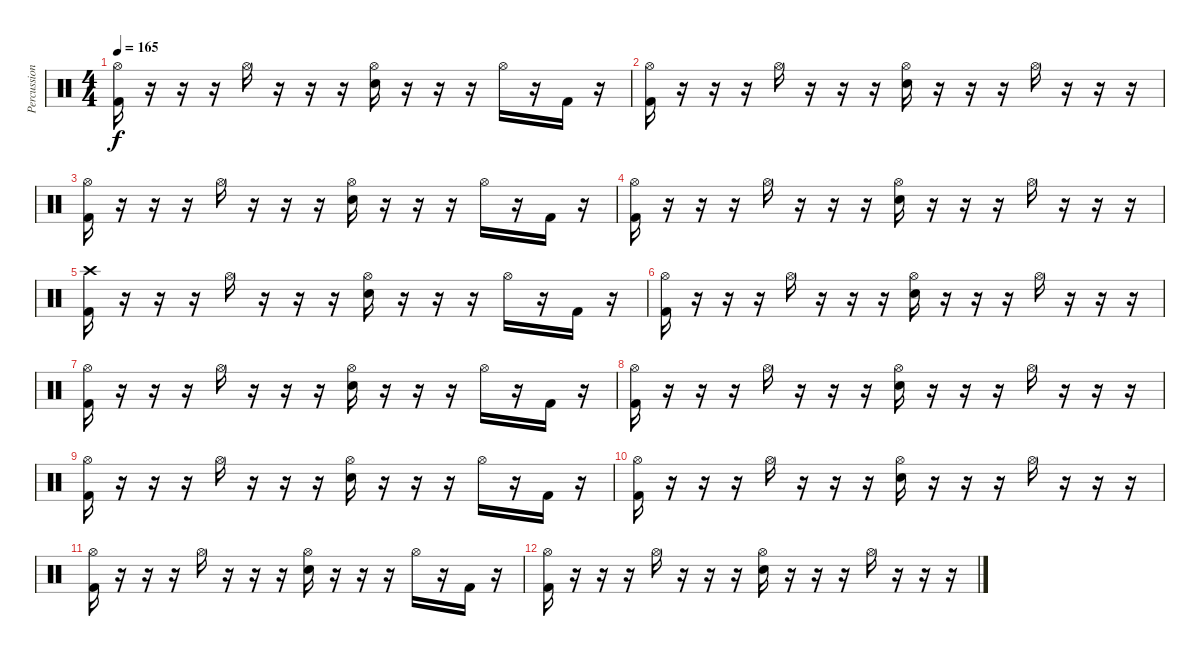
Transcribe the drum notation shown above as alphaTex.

\track ("Percussion" "Percussion") {instrument percussion}
\staff {score}
\articulation defaults
\ts (4 4)
\tempo 165
\clef neutral
\ks c
("Hi-Hat (open)" "Kick (hit) 2").16{dy f} r.16 r.16 r.16 "Hi-Hat (open)".16 r.16 r.16 r.16 ("Hi-Hat (open)" "Snare (hit) 2").16 r.16 r.16 r.16 "Hi-Hat (open)".16 r.16 "Kick (hit) 2".16 r.16 |
("Hi-Hat (open)" "Kick (hit) 2").16 r.16 r.16 r.16 "Hi-Hat (open)".16 r.16 r.16 r.16 ("Hi-Hat (open)" "Snare (hit) 2").16 r.16 r.16 r.16 "Hi-Hat (open)".16 r.16 r.16 r.16 |
("Hi-Hat (open)" "Kick (hit) 2").16 r.16 r.16 r.16 "Hi-Hat (open)".16 r.16 r.16 r.16 ("Hi-Hat (open)" "Snare (hit) 2").16 r.16 r.16 r.16 "Hi-Hat (open)".16 r.16 "Kick (hit) 2".16 r.16 |
("Hi-Hat (open)" "Kick (hit) 2").16 r.16 r.16 r.16 "Hi-Hat (open)".16 r.16 r.16 r.16 ("Hi-Hat (open)" "Snare (hit) 2").16 r.16 r.16 r.16 "Hi-Hat (open)".16 r.16 r.16 r.16 |
("Crash high (hit)" "Kick (hit) 2").16 r.16 r.16 r.16 "Hi-Hat (open)".16 r.16 r.16 r.16 ("Hi-Hat (open)" "Snare (hit) 2").16 r.16 r.16 r.16 "Hi-Hat (open)".16 r.16 "Kick (hit) 2".16 r.16 |
("Hi-Hat (open)" "Kick (hit) 2").16 r.16 r.16 r.16 "Hi-Hat (open)".16 r.16 r.16 r.16 ("Hi-Hat (open)" "Snare (hit) 2").16 r.16 r.16 r.16 "Hi-Hat (open)".16 r.16 r.16 r.16 |
("Hi-Hat (open)" "Kick (hit) 2").16 r.16 r.16 r.16 "Hi-Hat (open)".16 r.16 r.16 r.16 ("Hi-Hat (open)" "Snare (hit) 2").16 r.16 r.16 r.16 "Hi-Hat (open)".16 r.16 "Kick (hit) 2".16 r.16 |
("Hi-Hat (open)" "Kick (hit) 2").16 r.16 r.16 r.16 "Hi-Hat (open)".16 r.16 r.16 r.16 ("Hi-Hat (open)" "Snare (hit) 2").16 r.16 r.16 r.16 "Hi-Hat (open)".16 r.16 r.16 r.16 |
("Hi-Hat (open)" "Kick (hit) 2").16 r.16 r.16 r.16 "Hi-Hat (open)".16 r.16 r.16 r.16 ("Hi-Hat (open)" "Snare (hit) 2").16 r.16 r.16 r.16 "Hi-Hat (open)".16 r.16 "Kick (hit) 2".16 r.16 |
("Hi-Hat (open)" "Kick (hit) 2").16 r.16 r.16 r.16 "Hi-Hat (open)".16 r.16 r.16 r.16 ("Hi-Hat (open)" "Snare (hit) 2").16 r.16 r.16 r.16 "Hi-Hat (open)".16 r.16 r.16 r.16 |
("Hi-Hat (open)" "Kick (hit) 2").16 r.16 r.16 r.16 "Hi-Hat (open)".16 r.16 r.16 r.16 ("Hi-Hat (open)" "Snare (hit) 2").16 r.16 r.16 r.16 "Hi-Hat (open)".16 r.16 "Kick (hit) 2".16 r.16 |
("Hi-Hat (open)" "Kick (hit) 2").16 r.16 r.16 r.16 "Hi-Hat (open)".16 r.16 r.16 r.16 ("Hi-Hat (open)" "Snare (hit) 2").16 r.16 r.16 r.16 "Hi-Hat (open)".16 r.16 r.16 r.16
